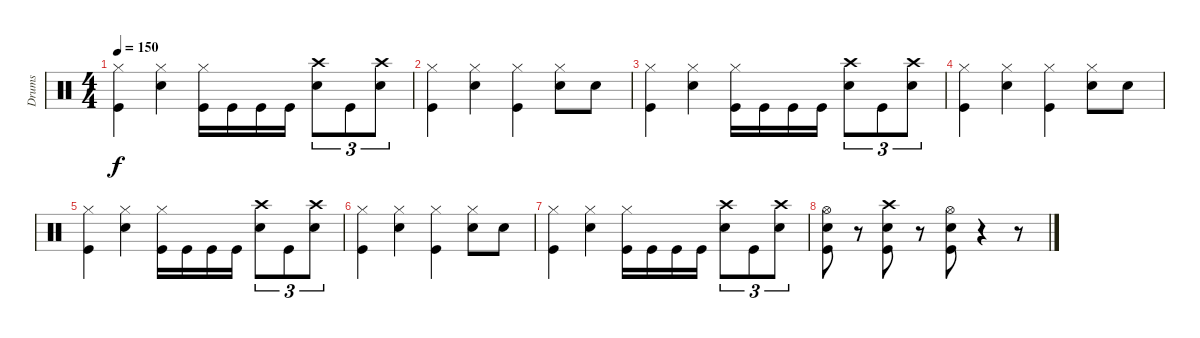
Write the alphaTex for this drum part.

\track ("Drums" "Drums") {instrument percussion}
\staff {score}
\articulation defaults
\ts (4 4)
\tempo 150
\clef neutral
\ks c
("Kick (hit)" "Hi-Hat (closed)").4{dy f} ("Electric Snare (hit)" "Hi-Hat (closed)").4 ("Kick (hit)" "Hi-Hat (closed)").16 "Kick (hit)".16 "Kick (hit)".16 "Kick (hit)".16 ("Electric Snare (hit)" "Crash high (hit)").8{tu (3 2)} "Kick (hit)".8{tu (3 2)} ("Electric Snare (hit)" "Crash high (hit)").8{tu (3 2)} |
("Kick (hit)" "Hi-Hat (closed)").4 ("Electric Snare (hit)" "Hi-Hat (closed)").4 ("Kick (hit)" "Hi-Hat (closed)").4 ("Electric Snare (hit)" "Hi-Hat (closed)").8 "Electric Snare (hit)".8 |
("Kick (hit)" "Hi-Hat (closed)").4 ("Electric Snare (hit)" "Hi-Hat (closed)").4 ("Kick (hit)" "Hi-Hat (closed)").16 "Kick (hit)".16 "Kick (hit)".16 "Kick (hit)".16 ("Electric Snare (hit)" "Crash high (hit)").8{tu (3 2)} "Kick (hit)".8{tu (3 2)} ("Electric Snare (hit)" "Crash high (hit)").8{tu (3 2)} |
("Kick (hit)" "Hi-Hat (closed)").4 ("Electric Snare (hit)" "Hi-Hat (closed)").4 ("Kick (hit)" "Hi-Hat (closed)").4 ("Electric Snare (hit)" "Hi-Hat (closed)").8 "Electric Snare (hit)".8 |
("Kick (hit)" "Hi-Hat (closed)").4 ("Electric Snare (hit)" "Hi-Hat (closed)").4 ("Kick (hit)" "Hi-Hat (closed)").16 "Kick (hit)".16 "Kick (hit)".16 "Kick (hit)".16 ("Electric Snare (hit)" "Crash high (hit)").8{tu (3 2)} "Kick (hit)".8{tu (3 2)} ("Electric Snare (hit)" "Crash high (hit)").8{tu (3 2)} |
("Kick (hit)" "Hi-Hat (closed)").4 ("Electric Snare (hit)" "Hi-Hat (closed)").4 ("Kick (hit)" "Hi-Hat (closed)").4 ("Electric Snare (hit)" "Hi-Hat (closed)").8 "Electric Snare (hit)".8 |
("Kick (hit)" "Hi-Hat (closed)").4 ("Electric Snare (hit)" "Hi-Hat (closed)").4 ("Kick (hit)" "Hi-Hat (closed)").16 "Kick (hit)".16 "Kick (hit)".16 "Kick (hit)".16 ("Electric Snare (hit)" "Crash high (hit)").8{tu (3 2)} "Kick (hit)".8{tu (3 2)} ("Electric Snare (hit)" "Crash high (hit)").8{tu (3 2)} |
("Kick (hit)" "Electric Snare (hit)" "Hi-Hat (open)").8 r.8 ("Kick (hit)" "Electric Snare (hit)" "Crash high (hit)").8 r.8 ("Kick (hit)" "Electric Snare (hit)" "Hi-Hat (open)").8 r.4 r.8
